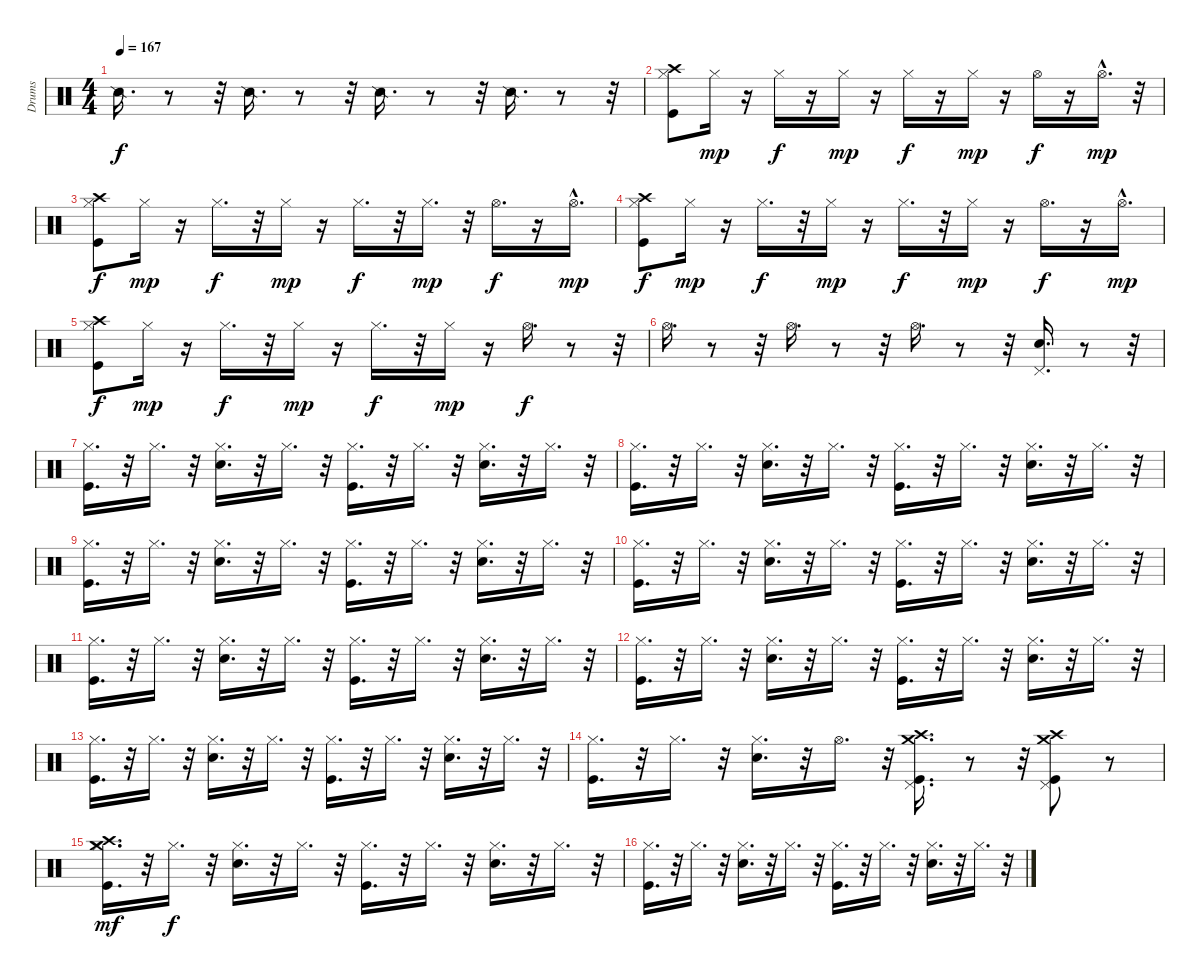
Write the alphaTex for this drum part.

\track ("Drums" "Drums") {instrument percussion}
\staff {score}
\articulation defaults
\ts (4 4)
\tempo 167
\clef neutral
\ks c "Snare (side stick) 2".16{d dy f}
r.8 r.32 "Snare (side stick) 2".16{d} r.8 r.32 "Snare (side stick) 2".16{d} r.8 r.32 "Snare (side stick) 2".16{d} r.8 r.32 |
("Hi-Hat (closed)" "Crash high (hit)" "Kick (hit)").8 "Hi-Hat (closed)".16{dy mp} r.16 "Hi-Hat (closed)".16{dy f} r.16 "Hi-Hat (closed)".16{dy mp} r.16 "Hi-Hat (closed)".16{dy f} r.16 "Hi-Hat (closed)".16{dy mp} r.16 "Hi-Hat (open)".16{dy f} r.16 "Hi-Hat (open)"{hac}.16{d dy mp} r.32 |
("Hi-Hat (closed)" "Crash high (hit)" "Kick (hit)").8{dy f} "Hi-Hat (closed)".16{dy mp} r.16 "Hi-Hat (closed)".16{d dy f} r.32 "Hi-Hat (closed)".16{dy mp} r.16 "Hi-Hat (closed)".16{d dy f} r.32 "Hi-Hat (closed)".16{d dy mp} r.32 "Hi-Hat (open)".16{d dy f} r.16 "Hi-Hat (open)"{hac}.16{d dy mp} |
("Hi-Hat (closed)" "Crash high (hit)" "Kick (hit)").8{dy f} "Hi-Hat (closed)".16{dy mp} r.16 "Hi-Hat (closed)".16{d dy f} r.32 "Hi-Hat (closed)".16{dy mp} r.16 "Hi-Hat (closed)".16{d dy f} r.32 "Hi-Hat (closed)".16{dy mp} r.16 "Hi-Hat (open)".16{d dy f} r.16 "Hi-Hat (open)"{hac}.16{d dy mp} |
("Hi-Hat (closed)" "Crash high (hit)" "Kick (hit)").8{dy f} "Hi-Hat (closed)".16{dy mp} r.16 "Hi-Hat (closed)".16{d dy f} r.32 "Hi-Hat (closed)".16{dy mp} r.16 "Hi-Hat (closed)".16{d dy f} r.32 "Hi-Hat (closed)".16{dy mp} r.16 "Hi-Hat (open)".16{d dy f} r.8 r.32 |
"Hi-Hat (open)".16{d} r.8 r.32 "Hi-Hat (open)".16{d} r.8 r.32 "Hi-Hat (open)".16{d} r.8 r.32 ("Electric Snare (hit)" "Pedal Hi-Hat (hit)").16{d} r.8 r.32 |
("Hi-Hat (closed)" "Kick (hit)").16{d} r.32 "Hi-Hat (closed)".16{d} r.32 ("Hi-Hat (closed)" "Electric Snare (hit)").16{d} r.32 "Hi-Hat (closed)".16{d} r.32 ("Hi-Hat (closed)" "Kick (hit)").16{d} r.32 "Hi-Hat (closed)".16{d} r.32 ("Hi-Hat (closed)" "Electric Snare (hit)").16{d} r.32 "Hi-Hat (closed)".16{d} r.32 |
("Hi-Hat (closed)" "Kick (hit)").16{d} r.32 "Hi-Hat (closed)".16{d} r.32 ("Hi-Hat (closed)" "Electric Snare (hit)").16{d} r.32 "Hi-Hat (closed)".16{d} r.32 ("Hi-Hat (closed)" "Kick (hit)").16{d} r.32 "Hi-Hat (closed)".16{d} r.32 ("Hi-Hat (closed)" "Electric Snare (hit)").16{d} r.32 "Hi-Hat (closed)".16{d} r.32 |
("Hi-Hat (closed)" "Kick (hit)").16{d} r.32 "Hi-Hat (closed)".16{d} r.32 ("Hi-Hat (closed)" "Electric Snare (hit)").16{d} r.32 "Hi-Hat (closed)".16{d} r.32 ("Hi-Hat (closed)" "Kick (hit)").16{d} r.32 "Hi-Hat (closed)".16{d} r.32 ("Hi-Hat (closed)" "Electric Snare (hit)").16{d} r.32 "Hi-Hat (closed)".16{d} r.32 |
("Hi-Hat (closed)" "Kick (hit)").16{d} r.32 "Hi-Hat (closed)".16{d} r.32 ("Hi-Hat (closed)" "Electric Snare (hit)").16{d} r.32 "Hi-Hat (closed)".16{d} r.32 ("Hi-Hat (closed)" "Kick (hit)").16{d} r.32 "Hi-Hat (closed)".16{d} r.32 ("Hi-Hat (closed)" "Electric Snare (hit)").16{d} r.32 "Hi-Hat (closed)".16{d} r.32 |
("Hi-Hat (closed)" "Kick (hit)").16{d} r.32 "Hi-Hat (closed)".16{d} r.32 ("Hi-Hat (closed)" "Electric Snare (hit)").16{d} r.32 "Hi-Hat (closed)".16{d} r.32 ("Hi-Hat (closed)" "Kick (hit)").16{d} r.32 "Hi-Hat (closed)".16{d} r.32 ("Hi-Hat (closed)" "Electric Snare (hit)").16{d} r.32 "Hi-Hat (closed)".16{d} r.32 |
("Hi-Hat (closed)" "Kick (hit)").16{d} r.32 "Hi-Hat (closed)".16{d} r.32 ("Hi-Hat (closed)" "Electric Snare (hit)").16{d} r.32 "Hi-Hat (closed)".16{d} r.32 ("Hi-Hat (closed)" "Kick (hit)").16{d} r.32 "Hi-Hat (closed)".16{d} r.32 ("Hi-Hat (closed)" "Electric Snare (hit)").16{d} r.32 "Hi-Hat (closed)".16{d} r.32 |
("Hi-Hat (closed)" "Kick (hit)").16{d} r.32 "Hi-Hat (closed)".16{d} r.32 ("Hi-Hat (closed)" "Electric Snare (hit)").16{d} r.32 "Hi-Hat (closed)".16{d} r.32 ("Hi-Hat (closed)" "Kick (hit)").16{d} r.32 "Hi-Hat (closed)".16{d} r.32 ("Hi-Hat (closed)" "Electric Snare (hit)").16{d} r.32 "Hi-Hat (closed)".16{d} r.32 |
("Hi-Hat (closed)" "Kick (hit)").16{d} r.32 "Hi-Hat (closed)".16{d} r.32 ("Hi-Hat (closed)" "Electric Snare (hit)").16{d} r.32 "Hi-Hat (open)".16{d} r.32 ("Crash medium (hit)" "Pedal Hi-Hat (hit)" "Crash high (hit)" "Kick (hit)").16{d} r.8 r.32 ("Crash medium (hit)" "Pedal Hi-Hat (hit)" "Kick (hit)" "Crash high (hit)").8 r.8 |
("Crash high (hit)" "Hi-Hat (closed)" "Kick (hit)" "Crash medium (hit)").16{d dy mf} r.32 "Hi-Hat (closed)".16{d dy f} r.32 ("Hi-Hat (closed)" "Electric Snare (hit)").16{d} r.32 "Hi-Hat (closed)".16{d} r.32 ("Hi-Hat (closed)" "Kick (hit)").16{d} r.32 "Hi-Hat (closed)".16{d} r.32 ("Hi-Hat (closed)" "Electric Snare (hit)").16{d} r.32 "Hi-Hat (closed)".16{d} r.32 |
("Hi-Hat (closed)" "Kick (hit)").16{d} r.32 "Hi-Hat (closed)".16{d} r.32 ("Hi-Hat (closed)" "Electric Snare (hit)").16{d} r.32 "Hi-Hat (closed)".16{d} r.32 ("Hi-Hat (closed)" "Kick (hit)").16{d} r.32 "Hi-Hat (closed)".16{d} r.32 ("Hi-Hat (closed)" "Electric Snare (hit)").16{d} r.32 "Hi-Hat (closed)".16{d} r.32
